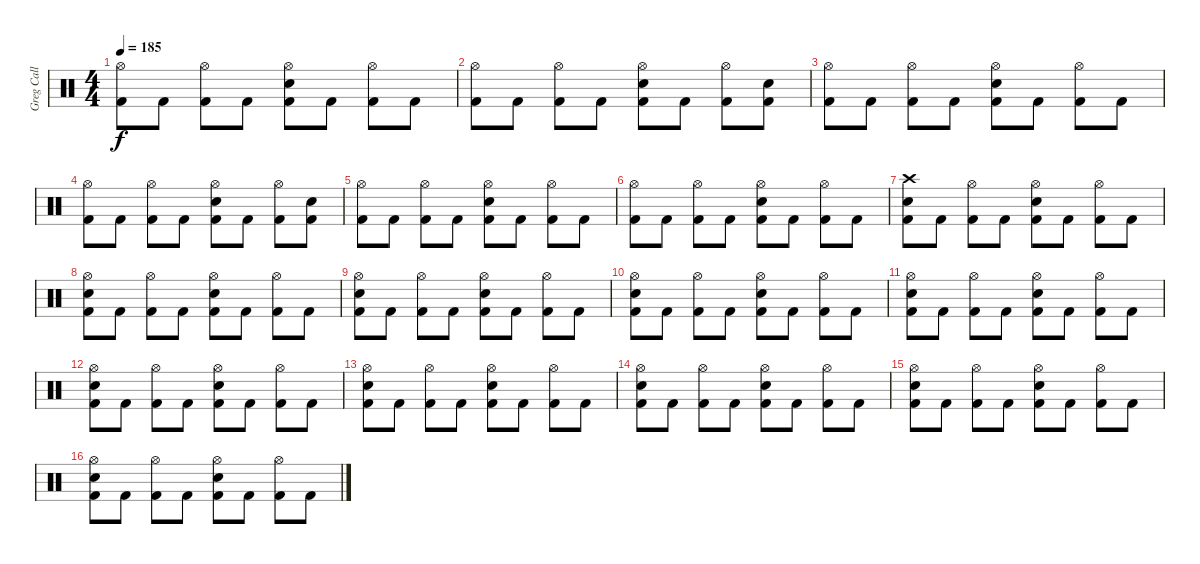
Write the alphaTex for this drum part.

\track ("Greg Call (Drums)" "Greg Call ") {instrument percussion}
\staff {score}
\articulation defaults
\ts (4 4)
\tempo 185
\clef neutral
\ks c
("Hi-Hat (open)" "Kick (hit) 2").8{dy f} "Kick (hit) 2".8 ("Hi-Hat (open)" "Kick (hit) 2").8 "Kick (hit) 2".8 ("Snare (hit) 2" "Hi-Hat (open)" "Kick (hit) 2").8 "Kick (hit) 2".8 ("Hi-Hat (open)" "Kick (hit) 2").8 "Kick (hit) 2".8 |
("Hi-Hat (open)" "Kick (hit) 2").8 "Kick (hit) 2".8 ("Hi-Hat (open)" "Kick (hit) 2").8 "Kick (hit) 2".8 ("Snare (hit) 2" "Hi-Hat (open)" "Kick (hit) 2").8 "Kick (hit) 2".8 ("Hi-Hat (open)" "Kick (hit) 2").8 ("Snare (hit) 2" "Kick (hit) 2").8 |
("Hi-Hat (open)" "Kick (hit) 2").8 "Kick (hit) 2".8 ("Hi-Hat (open)" "Kick (hit) 2").8 "Kick (hit) 2".8 ("Snare (hit) 2" "Hi-Hat (open)" "Kick (hit) 2").8 "Kick (hit) 2".8 ("Hi-Hat (open)" "Kick (hit) 2").8 "Kick (hit) 2".8 |
("Hi-Hat (open)" "Kick (hit) 2").8 "Kick (hit) 2".8 ("Hi-Hat (open)" "Kick (hit) 2").8 "Kick (hit) 2".8 ("Snare (hit) 2" "Hi-Hat (open)" "Kick (hit) 2").8 "Kick (hit) 2".8 ("Hi-Hat (open)" "Kick (hit) 2").8 ("Snare (hit) 2" "Kick (hit) 2").8 |
("Hi-Hat (open)" "Kick (hit) 2").8 "Kick (hit) 2".8 ("Hi-Hat (open)" "Kick (hit) 2").8 "Kick (hit) 2".8 ("Snare (hit) 2" "Hi-Hat (open)" "Kick (hit) 2").8 "Kick (hit) 2".8 ("Hi-Hat (open)" "Kick (hit) 2").8 "Kick (hit) 2".8 |
("Hi-Hat (open)" "Kick (hit) 2").8 "Kick (hit) 2".8 ("Hi-Hat (open)" "Kick (hit) 2").8 "Kick (hit) 2".8 ("Snare (hit) 2" "Hi-Hat (open)" "Kick (hit) 2").8 "Kick (hit) 2".8 ("Hi-Hat (open)" "Kick (hit) 2").8 "Kick (hit) 2".8 |
("Snare (hit) 2" "Crash high (hit)" "Kick (hit) 2").8 "Kick (hit) 2".8 ("Hi-Hat (open)" "Kick (hit) 2").8 "Kick (hit) 2".8 ("Snare (hit) 2" "Hi-Hat (open)" "Kick (hit) 2").8 "Kick (hit) 2".8 ("Hi-Hat (open)" "Kick (hit) 2").8 "Kick (hit) 2".8 |
("Snare (hit) 2" "Hi-Hat (open)" "Kick (hit) 2").8 "Kick (hit) 2".8 ("Hi-Hat (open)" "Kick (hit) 2").8 "Kick (hit) 2".8 ("Snare (hit) 2" "Hi-Hat (open)" "Kick (hit) 2").8 "Kick (hit) 2".8 ("Hi-Hat (open)" "Kick (hit) 2").8 "Kick (hit) 2".8 |
("Snare (hit) 2" "Hi-Hat (open)" "Kick (hit) 2").8 "Kick (hit) 2".8 ("Hi-Hat (open)" "Kick (hit) 2").8 "Kick (hit) 2".8 ("Snare (hit) 2" "Hi-Hat (open)" "Kick (hit) 2").8 "Kick (hit) 2".8 ("Hi-Hat (open)" "Kick (hit) 2").8 "Kick (hit) 2".8 |
("Snare (hit) 2" "Hi-Hat (open)" "Kick (hit) 2").8 "Kick (hit) 2".8 ("Hi-Hat (open)" "Kick (hit) 2").8 "Kick (hit) 2".8 ("Snare (hit) 2" "Hi-Hat (open)" "Kick (hit) 2").8 "Kick (hit) 2".8 ("Hi-Hat (open)" "Kick (hit) 2").8 "Kick (hit) 2".8 |
("Snare (hit) 2" "Hi-Hat (open)" "Kick (hit) 2").8 "Kick (hit) 2".8 ("Hi-Hat (open)" "Kick (hit) 2").8 "Kick (hit) 2".8 ("Snare (hit) 2" "Hi-Hat (open)" "Kick (hit) 2").8 "Kick (hit) 2".8 ("Hi-Hat (open)" "Kick (hit) 2").8 "Kick (hit) 2".8 |
("Snare (hit) 2" "Hi-Hat (open)" "Kick (hit) 2").8 "Kick (hit) 2".8 ("Hi-Hat (open)" "Kick (hit) 2").8 "Kick (hit) 2".8 ("Snare (hit) 2" "Hi-Hat (open)" "Kick (hit) 2").8 "Kick (hit) 2".8 ("Hi-Hat (open)" "Kick (hit) 2").8 "Kick (hit) 2".8 |
("Snare (hit) 2" "Hi-Hat (open)" "Kick (hit) 2").8 "Kick (hit) 2".8 ("Hi-Hat (open)" "Kick (hit) 2").8 "Kick (hit) 2".8 ("Snare (hit) 2" "Hi-Hat (open)" "Kick (hit) 2").8 "Kick (hit) 2".8 ("Hi-Hat (open)" "Kick (hit) 2").8 "Kick (hit) 2".8 |
("Snare (hit) 2" "Hi-Hat (open)" "Kick (hit) 2").8 "Kick (hit) 2".8 ("Hi-Hat (open)" "Kick (hit) 2").8 "Kick (hit) 2".8 ("Snare (hit) 2" "Hi-Hat (open)" "Kick (hit) 2").8 "Kick (hit) 2".8 ("Hi-Hat (open)" "Kick (hit) 2").8 "Kick (hit) 2".8 |
("Snare (hit) 2" "Hi-Hat (open)" "Kick (hit) 2").8 "Kick (hit) 2".8 ("Hi-Hat (open)" "Kick (hit) 2").8 "Kick (hit) 2".8 ("Snare (hit) 2" "Hi-Hat (open)" "Kick (hit) 2").8 "Kick (hit) 2".8 ("Hi-Hat (open)" "Kick (hit) 2").8 "Kick (hit) 2".8 |
("Snare (hit) 2" "Hi-Hat (open)" "Kick (hit) 2").8 "Kick (hit) 2".8 ("Hi-Hat (open)" "Kick (hit) 2").8 "Kick (hit) 2".8 ("Snare (hit) 2" "Hi-Hat (open)" "Kick (hit) 2").8 "Kick (hit) 2".8 ("Hi-Hat (open)" "Kick (hit) 2").8 "Kick (hit) 2".8
